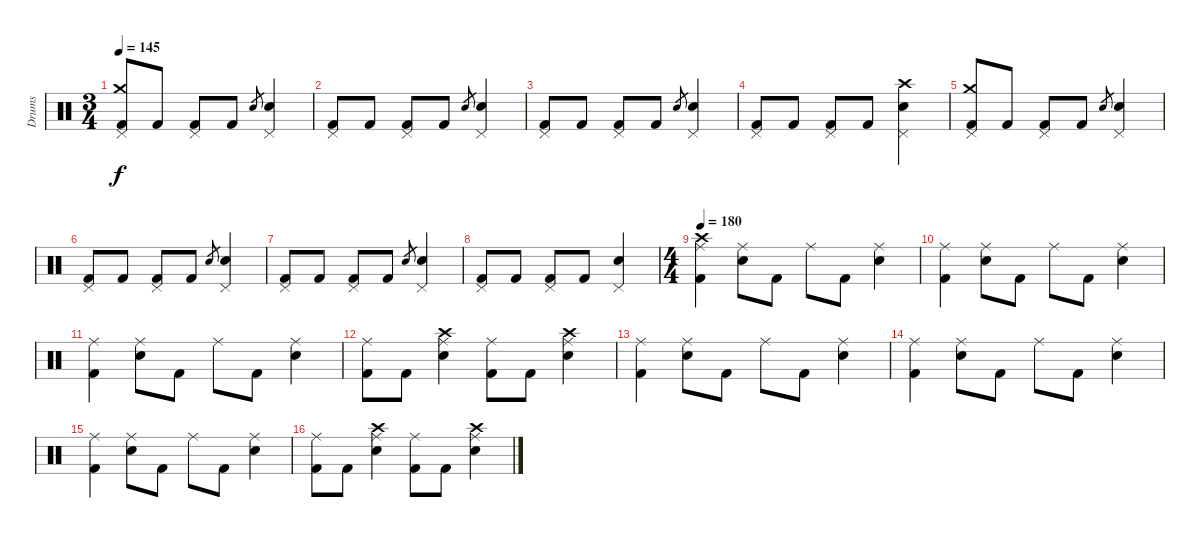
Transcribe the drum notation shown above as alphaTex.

\track ("Drums" "Drums") {instrument percussion}
\staff {score}
\articulation defaults
\ts (3 4)
\tempo 145
\clef neutral
\ks c
("Pedal Hi-Hat (hit)" "Crash medium (hit)" "Kick (hit) 2").8{dy f} "Kick (hit) 2".8 ("Pedal Hi-Hat (hit)" "Kick (hit) 2").8 "Kick (hit) 2".8 "Electric Snare (hit)".8{gr} ("Pedal Hi-Hat (hit)" "Electric Snare (hit)").4 |
("Pedal Hi-Hat (hit)" "Kick (hit) 2").8 "Kick (hit) 2".8 ("Pedal Hi-Hat (hit)" "Kick (hit) 2").8 "Kick (hit) 2".8 "Electric Snare (hit)".8{gr} ("Pedal Hi-Hat (hit)" "Electric Snare (hit)").4 |
("Pedal Hi-Hat (hit)" "Kick (hit) 2").8 "Kick (hit) 2".8 ("Pedal Hi-Hat (hit)" "Kick (hit) 2").8 "Kick (hit) 2".8 "Electric Snare (hit)".8{gr} ("Pedal Hi-Hat (hit)" "Electric Snare (hit)").4 |
("Pedal Hi-Hat (hit)" "Kick (hit) 2").8 "Kick (hit) 2".8 ("Pedal Hi-Hat (hit)" "Kick (hit) 2").8 "Kick (hit) 2".8 ("Pedal Hi-Hat (hit)" "Crash high (hit)" "Electric Snare (hit)").4 |
("Pedal Hi-Hat (hit)" "Crash medium (hit)" "Kick (hit) 2").8 "Kick (hit) 2".8 ("Pedal Hi-Hat (hit)" "Kick (hit) 2").8 "Kick (hit) 2".8 "Electric Snare (hit)".8{gr} ("Pedal Hi-Hat (hit)" "Electric Snare (hit)").4 |
("Pedal Hi-Hat (hit)" "Kick (hit) 2").8 "Kick (hit) 2".8 ("Pedal Hi-Hat (hit)" "Kick (hit) 2").8 "Kick (hit) 2".8 "Electric Snare (hit)".8{gr} ("Pedal Hi-Hat (hit)" "Electric Snare (hit)").4 |
("Pedal Hi-Hat (hit)" "Kick (hit) 2").8 "Kick (hit) 2".8 ("Pedal Hi-Hat (hit)" "Kick (hit) 2").8 "Kick (hit) 2".8 "Electric Snare (hit)".8{gr} ("Pedal Hi-Hat (hit)" "Electric Snare (hit)").4 |
("Pedal Hi-Hat (hit)" "Kick (hit) 2").8 "Kick (hit) 2".8 ("Pedal Hi-Hat (hit)" "Kick (hit) 2").8 "Kick (hit) 2".8 ("Pedal Hi-Hat (hit)" "Electric Snare (hit)").4 |
\ts (4 4)
\tempo 180
("Ride (middle)" "Crash high (hit)" "Kick (hit) 2").4 ("Ride (middle)" "Electric Snare (hit)").8 "Kick (hit) 2".8 "Ride (middle)".8 "Kick (hit) 2".8 ("Ride (middle)" "Electric Snare (hit)").4 |
("Ride (middle)" "Kick (hit) 2").4 ("Ride (middle)" "Electric Snare (hit)").8 "Kick (hit) 2".8 "Ride (middle)".8 "Kick (hit) 2".8 ("Ride (middle)" "Electric Snare (hit)").4 |
("Ride (middle)" "Kick (hit) 2").4 ("Ride (middle)" "Electric Snare (hit)").8 "Kick (hit) 2".8 "Ride (middle)".8 "Kick (hit) 2".8 ("Ride (middle)" "Electric Snare (hit)").4 |
("Ride (middle)" "Kick (hit) 2").8 "Kick (hit) 2".8 ("Ride (middle)" "Crash high (hit)" "Electric Snare (hit)").4 ("Ride (middle)" "Kick (hit) 2").8 "Kick (hit) 2".8 ("Ride (middle)" "Crash high (hit)" "Electric Snare (hit)").4 |
("Ride (middle)" "Kick (hit) 2").4 ("Ride (middle)" "Electric Snare (hit)").8 "Kick (hit) 2".8 "Ride (middle)".8 "Kick (hit) 2".8 ("Ride (middle)" "Electric Snare (hit)").4 |
("Ride (middle)" "Kick (hit) 2").4 ("Ride (middle)" "Electric Snare (hit)").8 "Kick (hit) 2".8 "Ride (middle)".8 "Kick (hit) 2".8 ("Ride (middle)" "Electric Snare (hit)").4 |
("Ride (middle)" "Kick (hit) 2").4 ("Ride (middle)" "Electric Snare (hit)").8 "Kick (hit) 2".8 "Ride (middle)".8 "Kick (hit) 2".8 ("Ride (middle)" "Electric Snare (hit)").4 |
("Ride (middle)" "Kick (hit) 2").8 "Kick (hit) 2".8 ("Ride (middle)" "Crash high (hit)" "Electric Snare (hit)").4 ("Ride (middle)" "Kick (hit) 2").8 "Kick (hit) 2".8 ("Ride (middle)" "Crash high (hit)" "Electric Snare (hit)").4
